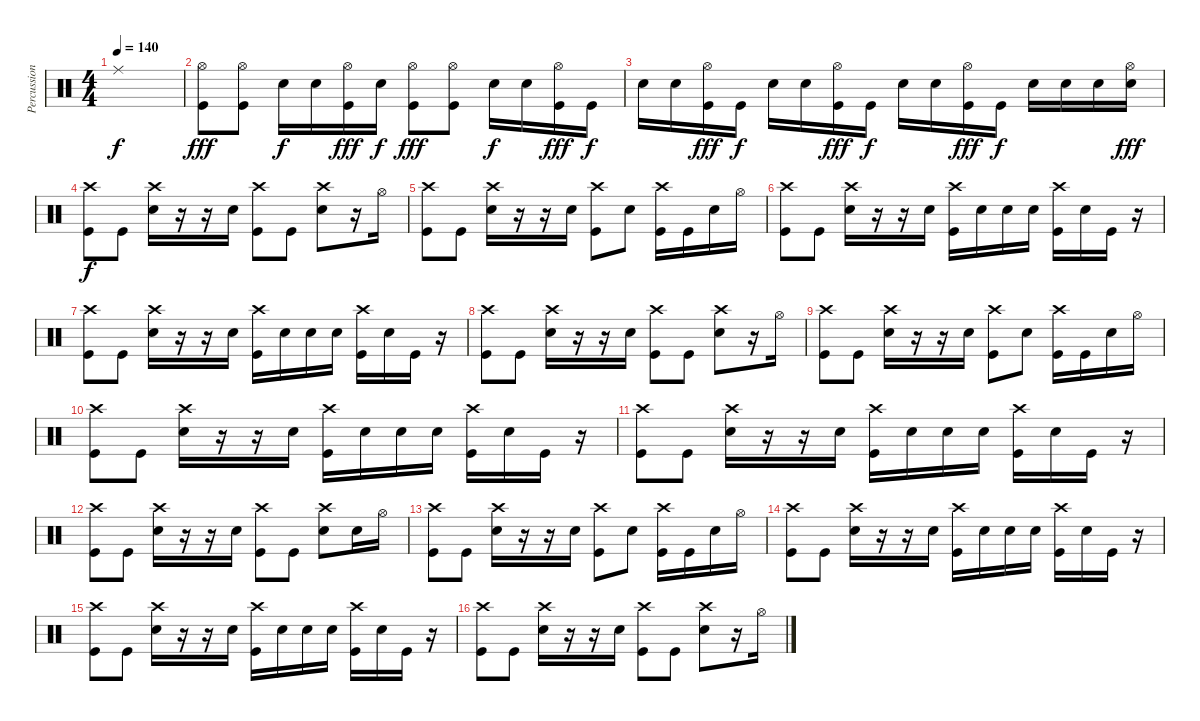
\track ("Percussion" "Percussion") {instrument percussion}
\staff {score}
\articulation defaults
\ts (4 4)
\tempo 140
\clef neutral
\ks c "Ride (middle)".1{dy f}
|
("Hi-Hat (open)" "Kick (hit)").8{dy fff} ("Hi-Hat (open)" "Kick (hit)").8 "Snare (hit) 2".16{dy f} "Snare (hit) 2".16 ("Hi-Hat (open)" "Kick (hit)").16{dy fff} "Snare (hit) 2".16{dy f} ("Hi-Hat (open)" "Kick (hit)").8{dy fff} ("Hi-Hat (open)" "Kick (hit)").8 "Snare (hit) 2".16{dy f} "Snare (hit) 2".16 ("Hi-Hat (open)" "Kick (hit)").16{dy fff} "Kick (hit)".16{dy f} |
"Snare (hit) 2".16 "Snare (hit) 2".16 ("Hi-Hat (open)" "Kick (hit)").16{dy fff} "Kick (hit)".16{dy f} "Snare (hit) 2".16 "Snare (hit) 2".16 ("Hi-Hat (open)" "Kick (hit)").16{dy fff} "Kick (hit)".16{dy f} "Snare (hit) 2".16 "Snare (hit) 2".16 ("Hi-Hat (open)" "Kick (hit)").16{dy fff} "Kick (hit)".16{dy f} "Snare (hit) 2".16 "Snare (hit) 2".16 "Snare (hit) 2".16 ("Hi-Hat (open)" "Snare (hit) 2").16{dy fff} |
("Crash high (hit)" "Kick (hit)").8{dy f} "Kick (hit)".8 ("Crash high (hit)" "Snare (hit) 2").16 r.16 r.16 "Snare (hit) 2".16 ("Crash high (hit)" "Kick (hit)").8 "Kick (hit)".8 ("Crash high (hit)" "Snare (hit) 2").8 r.16 "Hi-Hat (open)".16 |
("Crash high (hit)" "Kick (hit)").8 "Kick (hit)".8 ("Crash high (hit)" "Snare (hit) 2").16 r.16 r.16 "Snare (hit) 2".16 ("Crash high (hit)" "Kick (hit)").8 "Snare (hit) 2".8 ("Crash high (hit)" "Kick (hit)").16 "Kick (hit)".16 "Snare (hit) 2".16 "Hi-Hat (open)".16 |
("Crash high (hit)" "Kick (hit)").8 "Kick (hit)".8 ("Crash high (hit)" "Snare (hit) 2").16 r.16 r.16 "Snare (hit) 2".16 ("Crash high (hit)" "Kick (hit)").16 "Snare (hit) 2".16 "Snare (hit) 2".16 "Snare (hit) 2".16 ("Crash high (hit)" "Kick (hit)").16 "Snare (hit) 2".16 "Kick (hit)".16 r.16 |
("Crash high (hit)" "Kick (hit)").8 "Kick (hit)".8 ("Crash high (hit)" "Snare (hit) 2").16 r.16 r.16 "Snare (hit) 2".16 ("Crash high (hit)" "Kick (hit)").16 "Snare (hit) 2".16 "Snare (hit) 2".16 "Snare (hit) 2".16 ("Crash high (hit)" "Kick (hit)").16 "Snare (hit) 2".16 "Kick (hit)".16 r.16 |
("Crash high (hit)" "Kick (hit)").8 "Kick (hit)".8 ("Crash high (hit)" "Snare (hit) 2").16 r.16 r.16 "Snare (hit) 2".16 ("Crash high (hit)" "Kick (hit)").8 "Kick (hit)".8 ("Crash high (hit)" "Snare (hit) 2").8 r.16 "Hi-Hat (open)".16 |
("Crash high (hit)" "Kick (hit)").8 "Kick (hit)".8 ("Crash high (hit)" "Snare (hit) 2").16 r.16 r.16 "Snare (hit) 2".16 ("Crash high (hit)" "Kick (hit)").8 "Snare (hit) 2".8 ("Crash high (hit)" "Kick (hit)").16 "Kick (hit)".16 "Snare (hit) 2".16 "Hi-Hat (open)".16 |
("Crash high (hit)" "Kick (hit)").8 "Kick (hit)".8 ("Crash high (hit)" "Snare (hit) 2").16 r.16 r.16 "Snare (hit) 2".16 ("Crash high (hit)" "Kick (hit)").16 "Snare (hit) 2".16 "Snare (hit) 2".16 "Snare (hit) 2".16 ("Crash high (hit)" "Kick (hit)").16 "Snare (hit) 2".16 "Kick (hit)".16 r.16 |
("Crash high (hit)" "Kick (hit)").8 "Kick (hit)".8 ("Crash high (hit)" "Snare (hit) 2").16 r.16 r.16 "Snare (hit) 2".16 ("Crash high (hit)" "Kick (hit)").16 "Snare (hit) 2".16 "Snare (hit) 2".16 "Snare (hit) 2".16 ("Crash high (hit)" "Kick (hit)").16 "Snare (hit) 2".16 "Kick (hit)".16 r.16 |
("Crash high (hit)" "Kick (hit)").8 "Kick (hit)".8 ("Crash high (hit)" "Snare (hit) 2").16 r.16 r.16 "Snare (hit) 2".16 ("Crash high (hit)" "Kick (hit)").8 "Kick (hit)".8 ("Crash high (hit)" "Snare (hit) 2").8 "Snare (hit) 2".16 "Hi-Hat (open)".16 |
("Crash high (hit)" "Kick (hit)").8 "Kick (hit)".8 ("Crash high (hit)" "Snare (hit) 2").16 r.16 r.16 "Snare (hit) 2".16 ("Crash high (hit)" "Kick (hit)").8 "Snare (hit) 2".8 ("Crash high (hit)" "Kick (hit)").16 "Kick (hit)".16 "Snare (hit) 2".16 "Hi-Hat (open)".16 |
("Crash high (hit)" "Kick (hit)").8 "Kick (hit)".8 ("Crash high (hit)" "Snare (hit) 2").16 r.16 r.16 "Snare (hit) 2".16 ("Crash high (hit)" "Kick (hit)").16 "Snare (hit) 2".16 "Snare (hit) 2".16 "Snare (hit) 2".16 ("Crash high (hit)" "Kick (hit)").16 "Snare (hit) 2".16 "Kick (hit)".16 r.16 |
("Crash high (hit)" "Kick (hit)").8 "Kick (hit)".8 ("Crash high (hit)" "Snare (hit) 2").16 r.16 r.16 "Snare (hit) 2".16 ("Crash high (hit)" "Kick (hit)").16 "Snare (hit) 2".16 "Snare (hit) 2".16 "Snare (hit) 2".16 ("Crash high (hit)" "Kick (hit)").16 "Snare (hit) 2".16 "Kick (hit)".16 r.16 |
("Crash high (hit)" "Kick (hit)").8 "Kick (hit)".8 ("Crash high (hit)" "Snare (hit) 2").16 r.16 r.16 "Snare (hit) 2".16 ("Crash high (hit)" "Kick (hit)").8 "Kick (hit)".8 ("Crash high (hit)" "Snare (hit) 2").8 r.16 "Hi-Hat (open)".16
